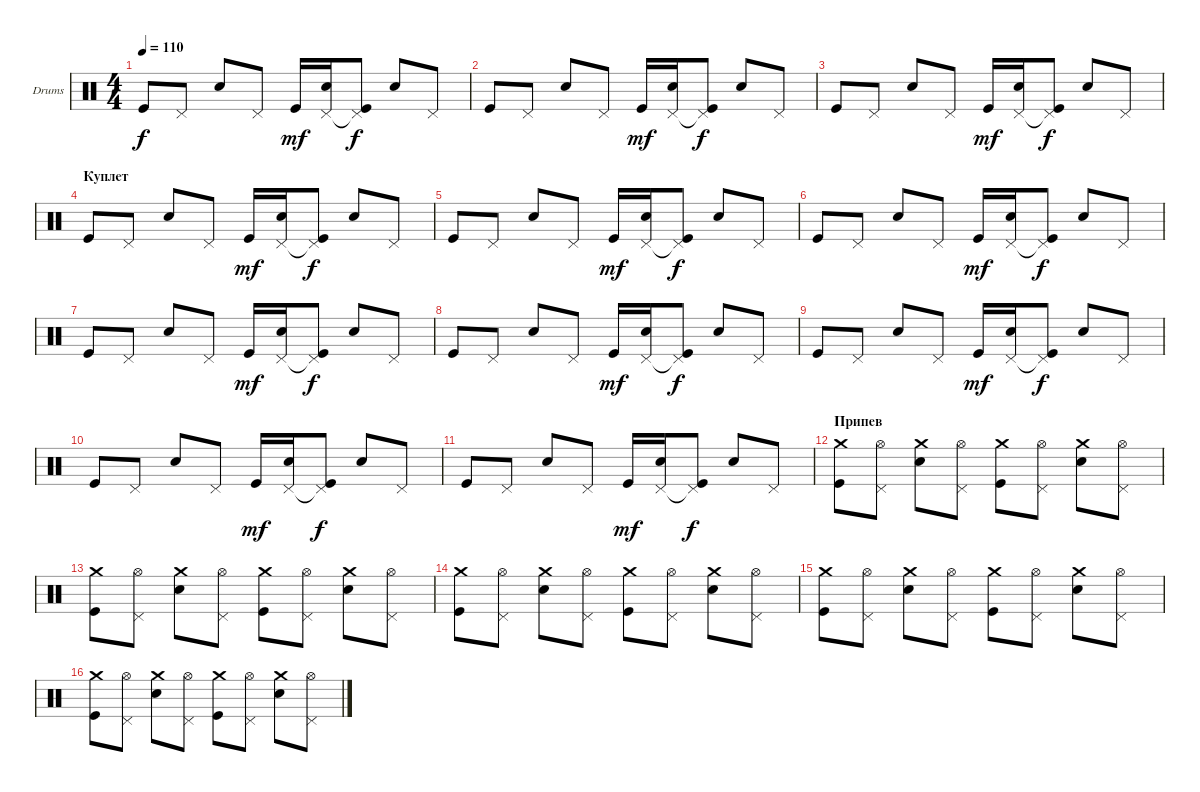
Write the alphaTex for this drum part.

\defaultSystemsLayout 4
\bracketExtendMode groupsimilarinstruments
\firstSystemTrackNameOrientation horizontal
\otherSystemsTrackNameOrientation horizontal
\track ("Е. Кулаков" "Drums") {instrument percussion}
\staff {score}
\articulation defaults
\ts (4 4)
\tempo 110
\clef neutral
\ks c "Kick (hit)".8{dy f} "Pedal Hi-Hat (hit)".8 "Snare (hit) 2".8 "Pedal Hi-Hat (hit)".8 "Kick (hit)".16{dy mf}
("Snare (hit) 2" "Pedal Hi-Hat (hit)").16 ("Kick (hit)" "Pedal Hi-Hat (hit)"{t}).8{dy f} "Snare (hit) 2".8 "Pedal Hi-Hat (hit)".8 |
"Kick (hit)".8 "Pedal Hi-Hat (hit)".8 "Snare (hit) 2".8 "Pedal Hi-Hat (hit)".8 "Kick (hit)".16{dy mf} ("Snare (hit) 2" "Pedal Hi-Hat (hit)").16 ("Kick (hit)" "Pedal Hi-Hat (hit)"{t}).8{dy f} "Snare (hit) 2".8 "Pedal Hi-Hat (hit)".8 |
"Kick (hit)".8 "Pedal Hi-Hat (hit)".8 "Snare (hit) 2".8 "Pedal Hi-Hat (hit)".8 "Kick (hit)".16{dy mf} ("Snare (hit) 2" "Pedal Hi-Hat (hit)").16 ("Kick (hit)" "Pedal Hi-Hat (hit)"{t}).8{dy f} "Snare (hit) 2".8 "Pedal Hi-Hat (hit)".8 |
\section ("" "Куплет")
"Kick (hit)".8 "Pedal Hi-Hat (hit)".8 "Snare (hit) 2".8 "Pedal Hi-Hat (hit)".8 "Kick (hit)".16{dy mf} ("Snare (hit) 2" "Pedal Hi-Hat (hit)").16 ("Kick (hit)" "Pedal Hi-Hat (hit)"{t}).8{dy f} "Snare (hit) 2".8 "Pedal Hi-Hat (hit)".8 |
"Kick (hit)".8 "Pedal Hi-Hat (hit)".8 "Snare (hit) 2".8 "Pedal Hi-Hat (hit)".8 "Kick (hit)".16{dy mf} ("Snare (hit) 2" "Pedal Hi-Hat (hit)").16 ("Kick (hit)" "Pedal Hi-Hat (hit)"{t}).8{dy f} "Snare (hit) 2".8 "Pedal Hi-Hat (hit)".8 |
"Kick (hit)".8 "Pedal Hi-Hat (hit)".8 "Snare (hit) 2".8 "Pedal Hi-Hat (hit)".8 "Kick (hit)".16{dy mf} ("Snare (hit) 2" "Pedal Hi-Hat (hit)").16 ("Kick (hit)" "Pedal Hi-Hat (hit)"{t}).8{dy f} "Snare (hit) 2".8 "Pedal Hi-Hat (hit)".8 |
"Kick (hit)".8 "Pedal Hi-Hat (hit)".8 "Snare (hit) 2".8 "Pedal Hi-Hat (hit)".8 "Kick (hit)".16{dy mf} ("Snare (hit) 2" "Pedal Hi-Hat (hit)").16 ("Kick (hit)" "Pedal Hi-Hat (hit)"{t}).8{dy f} "Snare (hit) 2".8 "Pedal Hi-Hat (hit)".8 |
"Kick (hit)".8 "Pedal Hi-Hat (hit)".8 "Snare (hit) 2".8 "Pedal Hi-Hat (hit)".8 "Kick (hit)".16{dy mf} ("Snare (hit) 2" "Pedal Hi-Hat (hit)").16 ("Kick (hit)" "Pedal Hi-Hat (hit)"{t}).8{dy f} "Snare (hit) 2".8 "Pedal Hi-Hat (hit)".8 |
"Kick (hit)".8 "Pedal Hi-Hat (hit)".8 "Snare (hit) 2".8 "Pedal Hi-Hat (hit)".8 "Kick (hit)".16{dy mf} ("Snare (hit) 2" "Pedal Hi-Hat (hit)").16 ("Kick (hit)" "Pedal Hi-Hat (hit)"{t}).8{dy f} "Snare (hit) 2".8 "Pedal Hi-Hat (hit)".8 |
"Kick (hit)".8 "Pedal Hi-Hat (hit)".8 "Snare (hit) 2".8 "Pedal Hi-Hat (hit)".8 "Kick (hit)".16{dy mf} ("Snare (hit) 2" "Pedal Hi-Hat (hit)").16 ("Kick (hit)" "Pedal Hi-Hat (hit)"{t}).8{dy f} "Snare (hit) 2".8 "Pedal Hi-Hat (hit)".8 |
"Kick (hit)".8 "Pedal Hi-Hat (hit)".8 "Snare (hit) 2".8 "Pedal Hi-Hat (hit)".8 "Kick (hit)".16{dy mf} ("Snare (hit) 2" "Pedal Hi-Hat (hit)").16 ("Kick (hit)" "Pedal Hi-Hat (hit)"{t}).8{dy f} "Snare (hit) 2".8 "Pedal Hi-Hat (hit)".8 |
\section ("" "Припев")
("Kick (hit)" "Crash medium (hit)").8 ("Pedal Hi-Hat (hit)" "Hi-Hat (open)").8 ("Snare (hit) 2" "Crash medium (hit)").8 ("Pedal Hi-Hat (hit)" "Hi-Hat (open)").8 ("Kick (hit)" "Crash medium (hit)").8 ("Pedal Hi-Hat (hit)" "Hi-Hat (open)").8 ("Snare (hit) 2" "Crash medium (hit)").8 ("Pedal Hi-Hat (hit)" "Hi-Hat (open)").8 |
("Kick (hit)" "Crash medium (hit)").8 ("Pedal Hi-Hat (hit)" "Hi-Hat (open)").8 ("Snare (hit) 2" "Crash medium (hit)").8 ("Pedal Hi-Hat (hit)" "Hi-Hat (open)").8 ("Kick (hit)" "Crash medium (hit)").8 ("Pedal Hi-Hat (hit)" "Hi-Hat (open)").8 ("Snare (hit) 2" "Crash medium (hit)").8 ("Pedal Hi-Hat (hit)" "Hi-Hat (open)").8 |
("Kick (hit)" "Crash medium (hit)").8 ("Pedal Hi-Hat (hit)" "Hi-Hat (open)").8 ("Snare (hit) 2" "Crash medium (hit)").8 ("Pedal Hi-Hat (hit)" "Hi-Hat (open)").8 ("Kick (hit)" "Crash medium (hit)").8 ("Pedal Hi-Hat (hit)" "Hi-Hat (open)").8 ("Snare (hit) 2" "Crash medium (hit)").8 ("Pedal Hi-Hat (hit)" "Hi-Hat (open)").8 |
("Kick (hit)" "Crash medium (hit)").8 ("Pedal Hi-Hat (hit)" "Hi-Hat (open)").8 ("Snare (hit) 2" "Crash medium (hit)").8 ("Pedal Hi-Hat (hit)" "Hi-Hat (open)").8 ("Kick (hit)" "Crash medium (hit)").8 ("Pedal Hi-Hat (hit)" "Hi-Hat (open)").8 ("Snare (hit) 2" "Crash medium (hit)").8 ("Pedal Hi-Hat (hit)" "Hi-Hat (open)").8 |
("Kick (hit)" "Crash medium (hit)").8 ("Pedal Hi-Hat (hit)" "Hi-Hat (open)").8 ("Snare (hit) 2" "Crash medium (hit)").8 ("Pedal Hi-Hat (hit)" "Hi-Hat (open)").8 ("Kick (hit)" "Crash medium (hit)").8 ("Pedal Hi-Hat (hit)" "Hi-Hat (open)").8 ("Snare (hit) 2" "Crash medium (hit)").8 ("Pedal Hi-Hat (hit)" "Hi-Hat (open)").8
